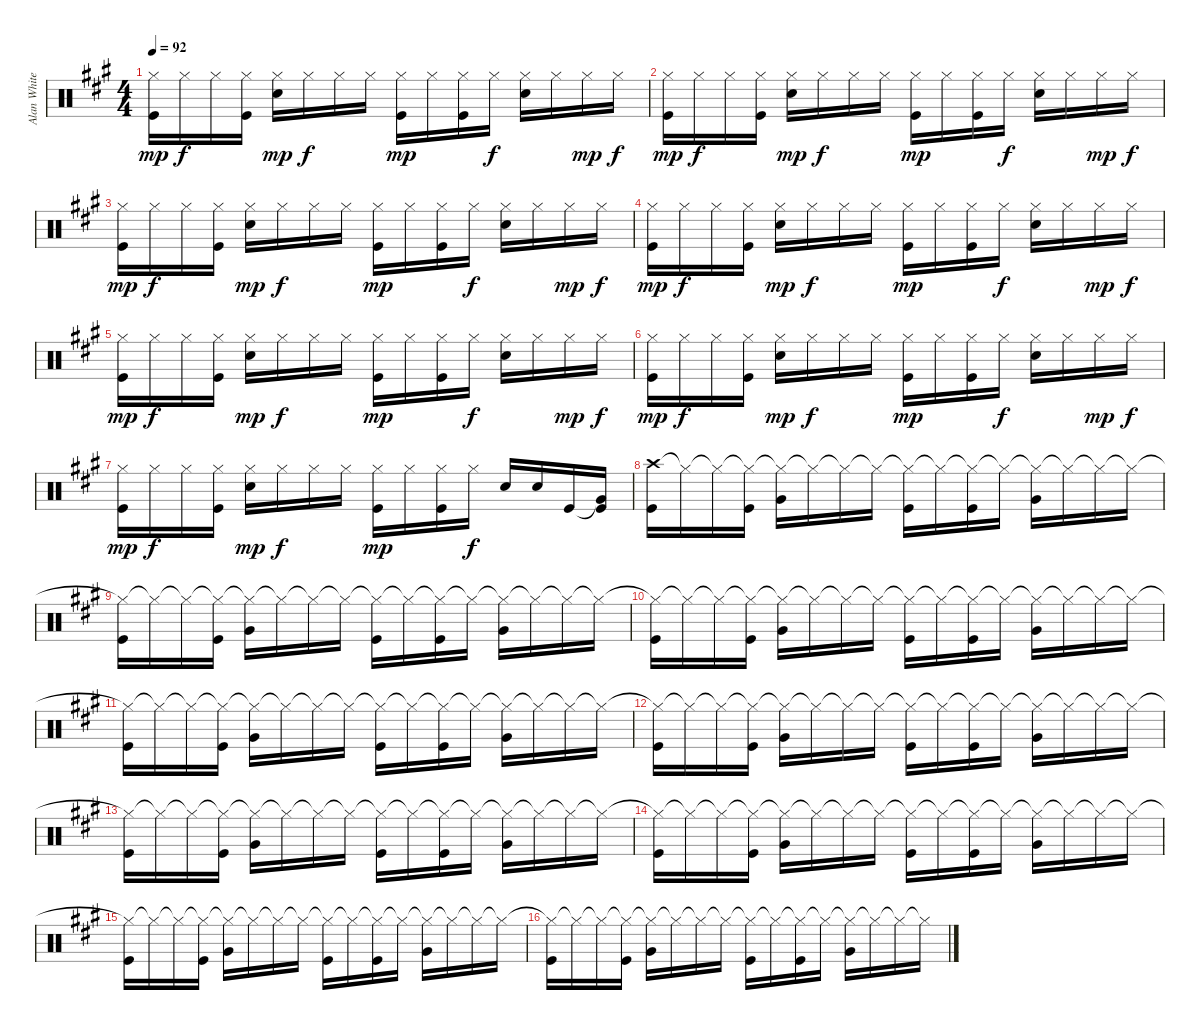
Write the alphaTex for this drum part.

\track ("Alan White" "Alan White") {instrument percussion}
\staff {score}
\articulation defaults
\ts (4 4)
\tempo 92
\clef neutral
\ks a
("Hi-Hat (closed)" "Kick (hit)").16{dy mp} "Hi-Hat (closed)".16{dy f} "Hi-Hat (closed)".16 ("Hi-Hat (closed)" "Kick (hit)").16 ("Hi-Hat (closed)" "Snare (hit) 2").16{dy mp} "Hi-Hat (closed)".16{dy f} "Hi-Hat (closed)".16 "Hi-Hat (closed)".16 ("Hi-Hat (closed)" "Kick (hit)").16{dy mp} "Hi-Hat (closed)".16 ("Hi-Hat (closed)" "Kick (hit)").16 "Hi-Hat (closed)".16{dy f} ("Hi-Hat (closed)" "Snare (hit) 2").16 "Hi-Hat (closed)".16 "Hi-Hat (closed)".16{dy mp} "Hi-Hat (closed)".16{dy f} |
("Hi-Hat (closed)" "Kick (hit)").16{dy mp} "Hi-Hat (closed)".16{dy f} "Hi-Hat (closed)".16 ("Hi-Hat (closed)" "Kick (hit)").16 ("Hi-Hat (closed)" "Snare (hit) 2").16{dy mp} "Hi-Hat (closed)".16{dy f} "Hi-Hat (closed)".16 "Hi-Hat (closed)".16 ("Hi-Hat (closed)" "Kick (hit)").16{dy mp} "Hi-Hat (closed)".16 ("Hi-Hat (closed)" "Kick (hit)").16 "Hi-Hat (closed)".16{dy f} ("Hi-Hat (closed)" "Snare (hit) 2").16 "Hi-Hat (closed)".16 "Hi-Hat (closed)".16{dy mp} "Hi-Hat (closed)".16{dy f} |
("Hi-Hat (closed)" "Kick (hit)").16{dy mp} "Hi-Hat (closed)".16{dy f} "Hi-Hat (closed)".16 ("Hi-Hat (closed)" "Kick (hit)").16 ("Hi-Hat (closed)" "Snare (hit) 2").16{dy mp} "Hi-Hat (closed)".16{dy f} "Hi-Hat (closed)".16 "Hi-Hat (closed)".16 ("Hi-Hat (closed)" "Kick (hit)").16{dy mp} "Hi-Hat (closed)".16 ("Hi-Hat (closed)" "Kick (hit)").16 "Hi-Hat (closed)".16{dy f} ("Hi-Hat (closed)" "Snare (hit) 2").16 "Hi-Hat (closed)".16 "Hi-Hat (closed)".16{dy mp} "Hi-Hat (closed)".16{dy f} |
("Hi-Hat (closed)" "Kick (hit)").16{dy mp} "Hi-Hat (closed)".16{dy f} "Hi-Hat (closed)".16 ("Hi-Hat (closed)" "Kick (hit)").16 ("Hi-Hat (closed)" "Snare (hit) 2").16{dy mp} "Hi-Hat (closed)".16{dy f} "Hi-Hat (closed)".16 "Hi-Hat (closed)".16 ("Hi-Hat (closed)" "Kick (hit)").16{dy mp} "Hi-Hat (closed)".16 ("Hi-Hat (closed)" "Kick (hit)").16 "Hi-Hat (closed)".16{dy f} ("Hi-Hat (closed)" "Snare (hit) 2").16 "Hi-Hat (closed)".16 "Hi-Hat (closed)".16{dy mp} "Hi-Hat (closed)".16{dy f} |
("Hi-Hat (closed)" "Kick (hit)").16{dy mp} "Hi-Hat (closed)".16{dy f} "Hi-Hat (closed)".16 ("Hi-Hat (closed)" "Kick (hit)").16 ("Hi-Hat (closed)" "Snare (hit) 2").16{dy mp} "Hi-Hat (closed)".16{dy f} "Hi-Hat (closed)".16 "Hi-Hat (closed)".16 ("Hi-Hat (closed)" "Kick (hit)").16{dy mp} "Hi-Hat (closed)".16 ("Hi-Hat (closed)" "Kick (hit)").16 "Hi-Hat (closed)".16{dy f} ("Hi-Hat (closed)" "Snare (hit) 2").16 "Hi-Hat (closed)".16 "Hi-Hat (closed)".16{dy mp} "Hi-Hat (closed)".16{dy f} |
("Hi-Hat (closed)" "Kick (hit)").16{dy mp} "Hi-Hat (closed)".16{dy f} "Hi-Hat (closed)".16 ("Hi-Hat (closed)" "Kick (hit)").16 ("Hi-Hat (closed)" "Snare (hit) 2").16{dy mp} "Hi-Hat (closed)".16{dy f} "Hi-Hat (closed)".16 "Hi-Hat (closed)".16 ("Hi-Hat (closed)" "Kick (hit)").16{dy mp} "Hi-Hat (closed)".16 ("Hi-Hat (closed)" "Kick (hit)").16 "Hi-Hat (closed)".16{dy f} ("Hi-Hat (closed)" "Snare (hit) 2").16 "Hi-Hat (closed)".16 "Hi-Hat (closed)".16{dy mp} "Hi-Hat (closed)".16{dy f} |
("Hi-Hat (closed)" "Kick (hit)").16{dy mp} "Hi-Hat (closed)".16{dy f} "Hi-Hat (closed)".16 ("Hi-Hat (closed)" "Kick (hit)").16 ("Hi-Hat (closed)" "Snare (hit) 2").16{dy mp} "Hi-Hat (closed)".16{dy f} "Hi-Hat (closed)".16 "Hi-Hat (closed)".16 ("Hi-Hat (closed)" "Kick (hit)").16{dy mp} "Hi-Hat (closed)".16 ("Hi-Hat (closed)" "Kick (hit)").16 "Hi-Hat (closed)".16{dy f} "Snare (hit) 2".16 "Snare (hit) 2".16 "Kick (hit)".16 ("Very Low Tom (hit)"{t} "Kick (hit)").16 |
("Crash high (hit)" "Kick (hit)").16 "Hi-Hat (closed)"{t}.16 "Hi-Hat (closed)"{t}.16 ("Hi-Hat (closed)"{t} "Kick (hit)").16 ("Hi-Hat (closed)"{t} "Very Low Tom (hit)").16 "Hi-Hat (closed)"{t}.16 "Hi-Hat (closed)"{t}.16 "Hi-Hat (closed)"{t}.16 ("Hi-Hat (closed)"{t} "Kick (hit)").16 "Hi-Hat (closed)"{t}.16 ("Hi-Hat (closed)"{t} "Kick (hit)").16 "Hi-Hat (closed)"{t}.16 ("Hi-Hat (closed)"{t} "Very Low Tom (hit)").16 "Hi-Hat (closed)"{t}.16 "Hi-Hat (closed)"{t}.16 "Hi-Hat (closed)"{t}.16 |
("Hi-Hat (closed)"{t} "Kick (hit)").16 "Hi-Hat (closed)"{t}.16 "Hi-Hat (closed)"{t}.16 ("Hi-Hat (closed)"{t} "Kick (hit)").16 ("Hi-Hat (closed)"{t} "Very Low Tom (hit)").16 "Hi-Hat (closed)"{t}.16 "Hi-Hat (closed)"{t}.16 "Hi-Hat (closed)"{t}.16 ("Hi-Hat (closed)"{t} "Kick (hit)").16 "Hi-Hat (closed)"{t}.16 ("Hi-Hat (closed)"{t} "Kick (hit)").16 "Hi-Hat (closed)"{t}.16 ("Hi-Hat (closed)"{t} "Very Low Tom (hit)").16 "Hi-Hat (closed)"{t}.16 "Hi-Hat (closed)"{t}.16 "Hi-Hat (closed)"{t}.16 |
("Hi-Hat (closed)"{t} "Kick (hit)").16 "Hi-Hat (closed)"{t}.16 "Hi-Hat (closed)"{t}.16 ("Hi-Hat (closed)"{t} "Kick (hit)").16 ("Hi-Hat (closed)"{t} "Very Low Tom (hit)").16 "Hi-Hat (closed)"{t}.16 "Hi-Hat (closed)"{t}.16 "Hi-Hat (closed)"{t}.16 ("Hi-Hat (closed)"{t} "Kick (hit)").16 "Hi-Hat (closed)"{t}.16 ("Hi-Hat (closed)"{t} "Kick (hit)").16 "Hi-Hat (closed)"{t}.16 ("Hi-Hat (closed)"{t} "Very Low Tom (hit)").16 "Hi-Hat (closed)"{t}.16 "Hi-Hat (closed)"{t}.16 "Hi-Hat (closed)"{t}.16 |
("Hi-Hat (closed)"{t} "Kick (hit)").16 "Hi-Hat (closed)"{t}.16 "Hi-Hat (closed)"{t}.16 ("Hi-Hat (closed)"{t} "Kick (hit)").16 ("Hi-Hat (closed)"{t} "Very Low Tom (hit)").16 "Hi-Hat (closed)"{t}.16 "Hi-Hat (closed)"{t}.16 "Hi-Hat (closed)"{t}.16 ("Hi-Hat (closed)"{t} "Kick (hit)").16 "Hi-Hat (closed)"{t}.16 ("Hi-Hat (closed)"{t} "Kick (hit)").16 "Hi-Hat (closed)"{t}.16 ("Hi-Hat (closed)"{t} "Very Low Tom (hit)").16 "Hi-Hat (closed)"{t}.16 "Hi-Hat (closed)"{t}.16 "Hi-Hat (closed)"{t}.16 |
("Hi-Hat (closed)"{t} "Kick (hit)").16 "Hi-Hat (closed)"{t}.16 "Hi-Hat (closed)"{t}.16 ("Hi-Hat (closed)"{t} "Kick (hit)").16 ("Hi-Hat (closed)"{t} "Very Low Tom (hit)").16 "Hi-Hat (closed)"{t}.16 "Hi-Hat (closed)"{t}.16 "Hi-Hat (closed)"{t}.16 ("Hi-Hat (closed)"{t} "Kick (hit)").16 "Hi-Hat (closed)"{t}.16 ("Hi-Hat (closed)"{t} "Kick (hit)").16 "Hi-Hat (closed)"{t}.16 ("Hi-Hat (closed)"{t} "Very Low Tom (hit)").16 "Hi-Hat (closed)"{t}.16 "Hi-Hat (closed)"{t}.16 "Hi-Hat (closed)"{t}.16 |
("Hi-Hat (closed)"{t} "Kick (hit)").16 "Hi-Hat (closed)"{t}.16 "Hi-Hat (closed)"{t}.16 ("Hi-Hat (closed)"{t} "Kick (hit)").16 ("Hi-Hat (closed)"{t} "Very Low Tom (hit)").16 "Hi-Hat (closed)"{t}.16 "Hi-Hat (closed)"{t}.16 "Hi-Hat (closed)"{t}.16 ("Hi-Hat (closed)"{t} "Kick (hit)").16 "Hi-Hat (closed)"{t}.16 ("Hi-Hat (closed)"{t} "Kick (hit)").16 "Hi-Hat (closed)"{t}.16 ("Hi-Hat (closed)"{t} "Very Low Tom (hit)").16 "Hi-Hat (closed)"{t}.16 "Hi-Hat (closed)"{t}.16 "Hi-Hat (closed)"{t}.16 |
("Hi-Hat (closed)"{t} "Kick (hit)").16 "Hi-Hat (closed)"{t}.16 "Hi-Hat (closed)"{t}.16 ("Hi-Hat (closed)"{t} "Kick (hit)").16 ("Hi-Hat (closed)"{t} "Very Low Tom (hit)").16 "Hi-Hat (closed)"{t}.16 "Hi-Hat (closed)"{t}.16 "Hi-Hat (closed)"{t}.16 ("Hi-Hat (closed)"{t} "Kick (hit)").16 "Hi-Hat (closed)"{t}.16 ("Hi-Hat (closed)"{t} "Kick (hit)").16 "Hi-Hat (closed)"{t}.16 ("Hi-Hat (closed)"{t} "Very Low Tom (hit)").16 "Hi-Hat (closed)"{t}.16 "Hi-Hat (closed)"{t}.16 "Hi-Hat (closed)"{t}.16 |
("Hi-Hat (closed)"{t} "Kick (hit)").16 "Hi-Hat (closed)"{t}.16 "Hi-Hat (closed)"{t}.16 ("Hi-Hat (closed)"{t} "Kick (hit)").16 ("Hi-Hat (closed)"{t} "Very Low Tom (hit)").16 "Hi-Hat (closed)"{t}.16 "Hi-Hat (closed)"{t}.16 "Hi-Hat (closed)"{t}.16 ("Hi-Hat (closed)"{t} "Kick (hit)").16 "Hi-Hat (closed)"{t}.16 ("Hi-Hat (closed)"{t} "Kick (hit)").16 "Hi-Hat (closed)"{t}.16 ("Hi-Hat (closed)"{t} "Very Low Tom (hit)").16 "Hi-Hat (closed)"{t}.16 "Hi-Hat (closed)"{t}.16 "Hi-Hat (closed)"{t}.16 |
("Hi-Hat (closed)"{t} "Kick (hit)").16 "Hi-Hat (closed)"{t}.16 "Hi-Hat (closed)"{t}.16 ("Hi-Hat (closed)"{t} "Kick (hit)").16 ("Hi-Hat (closed)"{t} "Very Low Tom (hit)").16 "Hi-Hat (closed)"{t}.16 "Hi-Hat (closed)"{t}.16 "Hi-Hat (closed)"{t}.16 ("Hi-Hat (closed)"{t} "Kick (hit)").16 "Hi-Hat (closed)"{t}.16 ("Hi-Hat (closed)"{t} "Kick (hit)").16 "Hi-Hat (closed)"{t}.16 ("Hi-Hat (closed)"{t} "Very Low Tom (hit)").16 "Hi-Hat (closed)"{t}.16 "Hi-Hat (closed)"{t}.16 "Hi-Hat (closed)"{t}.16
